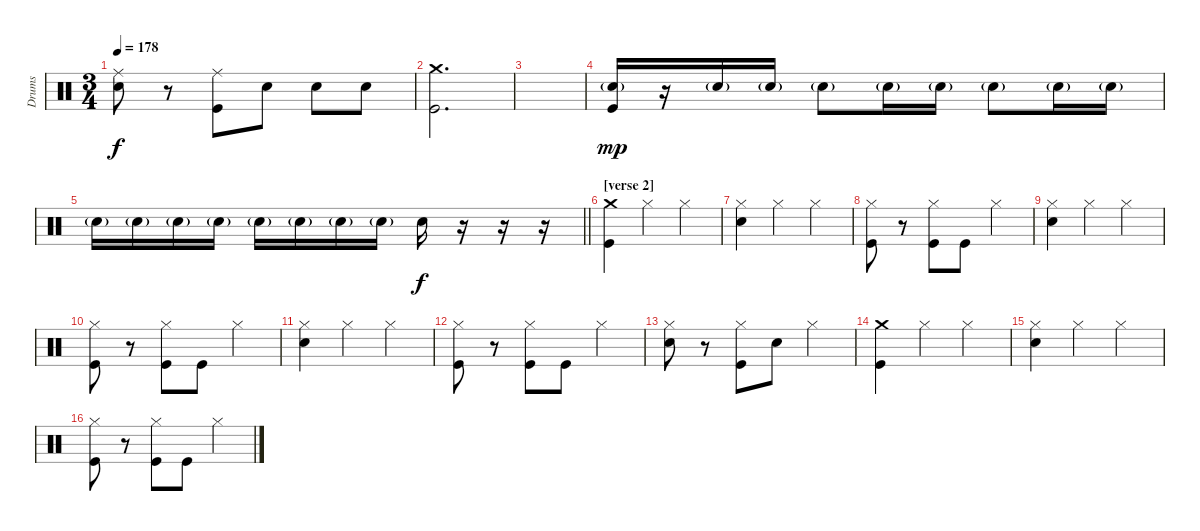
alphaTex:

\track ("Drums" "Drums") {instrument percussion}
\staff {score}
\articulation defaults
\ts (3 4)
\tempo 178
\clef neutral
\ks c
("Ride (middle)" "Snare (hit) 2").8{dy f} r.8 ("Ride (middle)" "Kick (hit)").8 "Snare (hit) 2".8 "Snare (hit) 2".8 "Snare (hit) 2".8 |
("Crash medium (hit)" "Kick (hit)").2{d} |
|
("Snare (hit) 2"{g} "Kick (hit)").16{dy mp} r.16 "Snare (hit) 2"{g}.16 "Snare (hit) 2"{g}.16 "Snare (hit) 2"{g}.8 "Snare (hit) 2"{g}.16 "Snare (hit) 2"{g}.16 "Snare (hit) 2"{g}.8 "Snare (hit) 2"{g}.16 "Snare (hit) 2"{g}.16 |
\barLineRight lightlight "Snare (hit) 2"{g}.16 "Snare (hit) 2"{g}.16 "Snare (hit) 2"{g}.16 "Snare (hit) 2"{g}.16 "Snare (hit) 2"{g}.16 "Snare (hit) 2"{g}.16 "Snare (hit) 2"{g}.16 "Snare (hit) 2"{g}.16 "Snare (hit) 2".16{dy f}
r.16 r.16 r.16 |
\section ("" "[verse 2]")
("Crash medium (hit)" "Kick (hit)").4 "Hi-Hat (closed)".4 "Hi-Hat (closed)".4 |
("Hi-Hat (closed)" "Snare (hit) 2").4 "Hi-Hat (closed)".4 "Hi-Hat (closed)".4 |
("Hi-Hat (closed)" "Kick (hit)").8 r.8 ("Hi-Hat (closed)" "Kick (hit)").8 "Kick (hit)".8 "Hi-Hat (closed)".4 |
("Hi-Hat (closed)" "Snare (hit) 2").4 "Hi-Hat (closed)".4 "Hi-Hat (closed)".4 |
("Hi-Hat (closed)" "Kick (hit)").8 r.8 ("Hi-Hat (closed)" "Kick (hit)").8 "Kick (hit)".8 "Hi-Hat (closed)".4 |
("Hi-Hat (closed)" "Snare (hit) 2").4 "Hi-Hat (closed)".4 "Hi-Hat (closed)".4 |
("Hi-Hat (closed)" "Kick (hit)").8 r.8 ("Hi-Hat (closed)" "Kick (hit)").8 "Kick (hit)".8 "Hi-Hat (closed)".4 |
("Hi-Hat (closed)" "Snare (hit) 2").8 r.8 ("Hi-Hat (closed)" "Kick (hit)").8 "Snare (hit) 2".8 "Hi-Hat (closed)".4 |
("Crash medium (hit)" "Kick (hit)").4 "Hi-Hat (closed)".4 "Hi-Hat (closed)".4 |
("Hi-Hat (closed)" "Snare (hit) 2").4 "Hi-Hat (closed)".4 "Hi-Hat (closed)".4 |
("Hi-Hat (closed)" "Kick (hit)").8 r.8 ("Hi-Hat (closed)" "Kick (hit)").8 "Kick (hit)".8 "Hi-Hat (closed)".4
